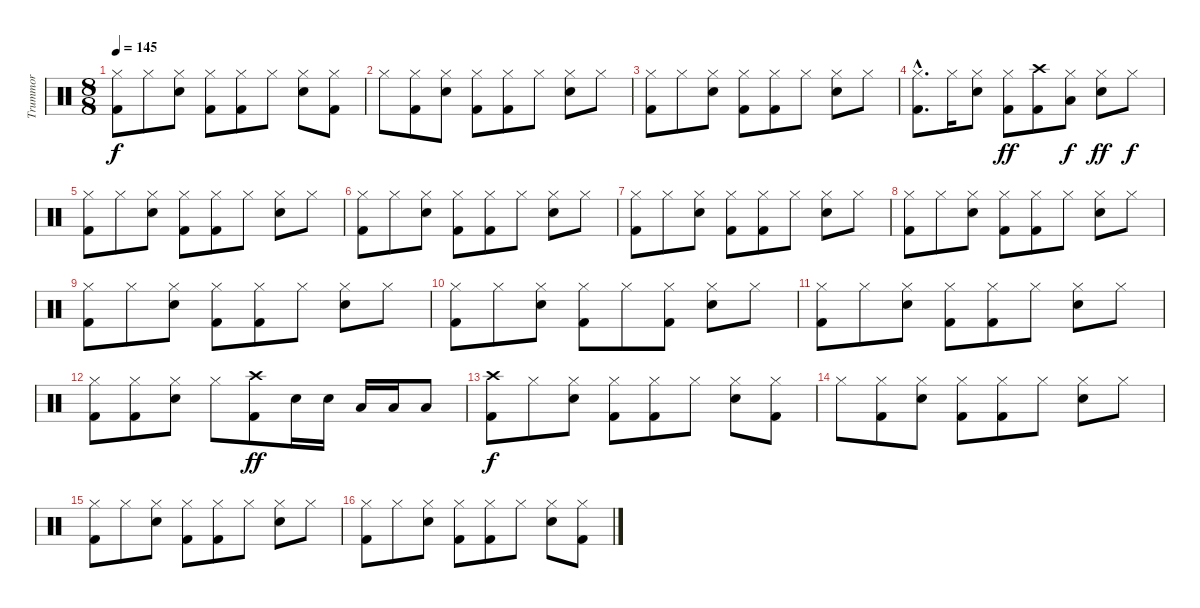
\track ("Trummor" "Trummor") {instrument percussion}
\staff {score}
\articulation defaults
\ts (8 8)
\tempo 145
\clef neutral
\ks c
("Kick (hit) 2" "Hi-Hat (closed)").8{dy f} "Hi-Hat (closed)".8 ("Snare (hit) 2" "Hi-Hat (closed)").8 ("Kick (hit) 2" "Hi-Hat (closed)").8 ("Kick (hit) 2" "Hi-Hat (closed)").8 "Hi-Hat (closed)".8 ("Snare (hit) 2" "Hi-Hat (closed)").8 ("Kick (hit) 2" "Hi-Hat (closed)").8 |
"Hi-Hat (closed)".8 ("Kick (hit) 2" "Hi-Hat (closed)").8 ("Snare (hit) 2" "Hi-Hat (closed)").8 ("Kick (hit) 2" "Hi-Hat (closed)").8 ("Kick (hit) 2" "Hi-Hat (closed)").8 "Hi-Hat (closed)".8 ("Snare (hit) 2" "Hi-Hat (closed)").8 "Hi-Hat (closed)".8 |
("Kick (hit) 2" "Hi-Hat (closed)").8 "Hi-Hat (closed)".8 ("Snare (hit) 2" "Hi-Hat (closed)").8 ("Kick (hit) 2" "Hi-Hat (closed)").8 ("Kick (hit) 2" "Hi-Hat (closed)").8 "Hi-Hat (closed)".8 ("Snare (hit) 2" "Hi-Hat (closed)").8 "Hi-Hat (closed)".8 |
("Kick (hit) 2"{hac} "Hi-Hat (closed)"{hac}).8{d} "Hi-Hat (closed)".16 ("Snare (hit) 2" "Hi-Hat (closed)").8 ("Kick (hit) 2" "Hi-Hat (closed)").8{dy ff} ("Kick (hit) 2" "Crash high (hit)").8 ("Low Floor Tom (hit)" "Hi-Hat (closed)").8{dy f} ("Snare (hit) 2" "Hi-Hat (closed)").8{dy ff} "Hi-Hat (closed)".8{dy f} |
("Kick (hit) 2" "Hi-Hat (closed)").8 "Hi-Hat (closed)".8 ("Snare (hit) 2" "Hi-Hat (closed)").8 ("Kick (hit) 2" "Hi-Hat (closed)").8 ("Kick (hit) 2" "Hi-Hat (closed)").8 "Hi-Hat (closed)".8 ("Snare (hit) 2" "Hi-Hat (closed)").8 "Hi-Hat (closed)".8 |
("Kick (hit) 2" "Hi-Hat (closed)").8 "Hi-Hat (closed)".8 ("Snare (hit) 2" "Hi-Hat (closed)").8 ("Kick (hit) 2" "Hi-Hat (closed)").8 ("Kick (hit) 2" "Hi-Hat (closed)").8 "Hi-Hat (closed)".8 ("Snare (hit) 2" "Hi-Hat (closed)").8 "Hi-Hat (closed)".8 |
("Kick (hit) 2" "Hi-Hat (closed)").8 "Hi-Hat (closed)".8 ("Snare (hit) 2" "Hi-Hat (closed)").8 ("Kick (hit) 2" "Hi-Hat (closed)").8 ("Kick (hit) 2" "Hi-Hat (closed)").8 "Hi-Hat (closed)".8 ("Snare (hit) 2" "Hi-Hat (closed)").8 "Hi-Hat (closed)".8 |
("Kick (hit) 2" "Hi-Hat (closed)").8 "Hi-Hat (closed)".8 ("Snare (hit) 2" "Hi-Hat (closed)").8 ("Kick (hit) 2" "Hi-Hat (closed)").8 ("Kick (hit) 2" "Hi-Hat (closed)").8 "Hi-Hat (closed)".8 ("Snare (hit) 2" "Hi-Hat (closed)").8 "Hi-Hat (closed)".8 |
("Kick (hit) 2" "Hi-Hat (closed)").8 "Hi-Hat (closed)".8 ("Snare (hit) 2" "Hi-Hat (closed)").8 ("Kick (hit) 2" "Hi-Hat (closed)").8 ("Kick (hit) 2" "Hi-Hat (closed)").8 "Hi-Hat (closed)".8 ("Snare (hit) 2" "Hi-Hat (closed)").8 "Hi-Hat (closed)".8 |
("Kick (hit) 2" "Hi-Hat (closed)").8 "Hi-Hat (closed)".8 ("Snare (hit) 2" "Hi-Hat (closed)").8 ("Kick (hit) 2" "Hi-Hat (closed)").8 "Hi-Hat (closed)".8 ("Kick (hit) 2" "Hi-Hat (closed)").8 ("Snare (hit) 2" "Hi-Hat (closed)").8 "Hi-Hat (closed)".8 |
("Kick (hit) 2" "Hi-Hat (closed)").8 "Hi-Hat (closed)".8 ("Snare (hit) 2" "Hi-Hat (closed)").8 ("Kick (hit) 2" "Hi-Hat (closed)").8 ("Kick (hit) 2" "Hi-Hat (closed)").8 "Hi-Hat (closed)".8 ("Snare (hit) 2" "Hi-Hat (closed)").8 "Hi-Hat (closed)".8 |
("Kick (hit) 2" "Hi-Hat (closed)").8 ("Kick (hit) 2" "Hi-Hat (closed)").8 ("Snare (hit) 2" "Hi-Hat (closed)").8 "Hi-Hat (closed)".8 ("Kick (hit) 2" "Crash high (hit)").8{dy ff} "Snare (hit) 2".16 "Snare (hit) 2".16 "Low Floor Tom (hit)".16 "Low Floor Tom (hit)".16 "Low Tom (hit)".8 |
("Kick (hit) 2" "Crash high (hit)").8{dy f} "Hi-Hat (closed)".8 ("Snare (hit) 2" "Hi-Hat (closed)").8 ("Kick (hit) 2" "Hi-Hat (closed)").8 ("Kick (hit) 2" "Hi-Hat (closed)").8 "Hi-Hat (closed)".8 ("Snare (hit) 2" "Hi-Hat (closed)").8 ("Kick (hit) 2" "Hi-Hat (closed)").8 |
"Hi-Hat (closed)".8 ("Kick (hit) 2" "Hi-Hat (closed)").8 ("Snare (hit) 2" "Hi-Hat (closed)").8 ("Kick (hit) 2" "Hi-Hat (closed)").8 ("Kick (hit) 2" "Hi-Hat (closed)").8 "Hi-Hat (closed)".8 ("Snare (hit) 2" "Hi-Hat (closed)").8 "Hi-Hat (closed)".8 |
("Kick (hit) 2" "Hi-Hat (closed)").8 "Hi-Hat (closed)".8 ("Snare (hit) 2" "Hi-Hat (closed)").8 ("Kick (hit) 2" "Hi-Hat (closed)").8 ("Kick (hit) 2" "Hi-Hat (closed)").8 "Hi-Hat (closed)".8 ("Snare (hit) 2" "Hi-Hat (closed)").8 "Hi-Hat (closed)".8 |
("Kick (hit) 2" "Hi-Hat (closed)").8 "Hi-Hat (closed)".8 ("Snare (hit) 2" "Hi-Hat (closed)").8 ("Kick (hit) 2" "Hi-Hat (closed)").8 ("Kick (hit) 2" "Hi-Hat (closed)").8 "Hi-Hat (closed)".8 ("Snare (hit) 2" "Hi-Hat (closed)").8 ("Kick (hit) 2" "Hi-Hat (closed)").8
